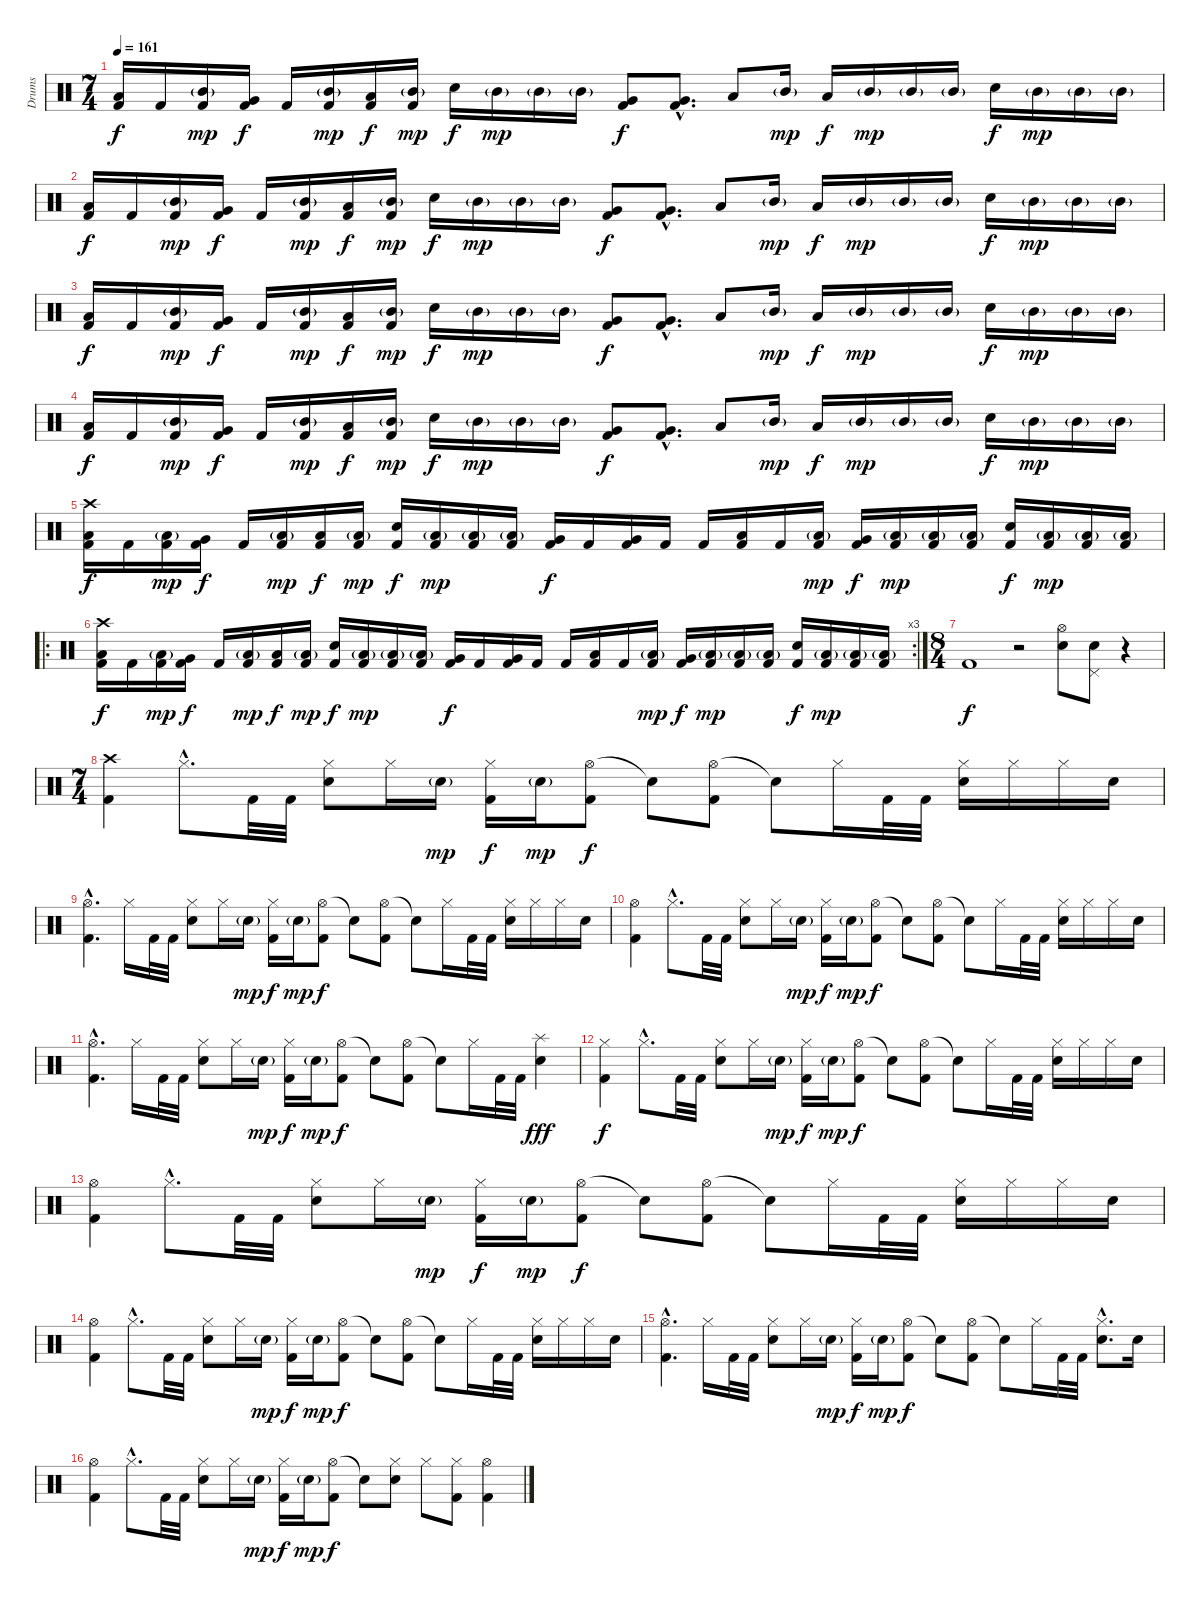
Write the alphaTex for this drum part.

\track ("Drums" "Drums") {instrument percussion}
\staff {score}
\articulation defaults
\ts (7 4)
\tempo 161
\clef neutral
\ks c
("Low Floor Tom (hit)" "Kick (hit) 2").16{dy f} "Kick (hit) 2".16 ("Mid Tom (hit)"{g} "Kick (hit) 2").16{dy mp} ("Very Low Tom (hit)" "Kick (hit) 2").16{dy f} "Kick (hit) 2".16 ("Mid Tom (hit)"{g} "Kick (hit) 2").16{dy mp} ("Low Floor Tom (hit)" "Kick (hit) 2").16{dy f} ("Mid Tom (hit)"{g} "Kick (hit) 2").16{dy mp} "Snare (hit) 2".16{dy f} "Mid Tom (hit)"{g}.16{dy mp} "Mid Tom (hit)"{g}.16 "Mid Tom (hit)"{g}.16 ("Very Low Tom (hit)" "Kick (hit) 2").8{dy f} ("Very Low Tom (hit)"{hac} "Kick (hit) 2"{hac}).8{d} "Low Floor Tom (hit)".8 "Mid Tom (hit)"{g}.16{dy mp} "Low Tom (hit)".16{dy f} "Mid Tom (hit)"{g}.16{dy mp} "Mid Tom (hit)"{g}.16 "Mid Tom (hit)"{g}.16 "Snare (hit) 2".16{dy f} "Mid Tom (hit)"{g}.16{dy mp} "Mid Tom (hit)"{g}.16 "Mid Tom (hit)"{g}.16 |
("Low Floor Tom (hit)" "Kick (hit) 2").16{dy f} "Kick (hit) 2".16 ("Mid Tom (hit)"{g} "Kick (hit) 2").16{dy mp} ("Very Low Tom (hit)" "Kick (hit) 2").16{dy f} "Kick (hit) 2".16 ("Mid Tom (hit)"{g} "Kick (hit) 2").16{dy mp} ("Low Floor Tom (hit)" "Kick (hit) 2").16{dy f} ("Mid Tom (hit)"{g} "Kick (hit) 2").16{dy mp} "Snare (hit) 2".16{dy f} "Mid Tom (hit)"{g}.16{dy mp} "Mid Tom (hit)"{g}.16 "Mid Tom (hit)"{g}.16 ("Very Low Tom (hit)" "Kick (hit) 2").8{dy f} ("Very Low Tom (hit)"{hac} "Kick (hit) 2"{hac}).8{d} "Low Floor Tom (hit)".8 "Mid Tom (hit)"{g}.16{dy mp} "Low Tom (hit)".16{dy f} "Mid Tom (hit)"{g}.16{dy mp} "Mid Tom (hit)"{g}.16 "Mid Tom (hit)"{g}.16 "Snare (hit) 2".16{dy f} "Mid Tom (hit)"{g}.16{dy mp} "Mid Tom (hit)"{g}.16 "Mid Tom (hit)"{g}.16 |
("Low Floor Tom (hit)" "Kick (hit) 2").16{dy f} "Kick (hit) 2".16 ("Mid Tom (hit)"{g} "Kick (hit) 2").16{dy mp} ("Very Low Tom (hit)" "Kick (hit) 2").16{dy f} "Kick (hit) 2".16 ("Mid Tom (hit)"{g} "Kick (hit) 2").16{dy mp} ("Low Floor Tom (hit)" "Kick (hit) 2").16{dy f} ("Mid Tom (hit)"{g} "Kick (hit) 2").16{dy mp} "Snare (hit) 2".16{dy f} "Mid Tom (hit)"{g}.16{dy mp} "Mid Tom (hit)"{g}.16 "Mid Tom (hit)"{g}.16 ("Very Low Tom (hit)" "Kick (hit) 2").8{dy f} ("Very Low Tom (hit)"{hac} "Kick (hit) 2"{hac}).8{d} "Low Floor Tom (hit)".8 "Mid Tom (hit)"{g}.16{dy mp} "Low Tom (hit)".16{dy f} "Mid Tom (hit)"{g}.16{dy mp} "Mid Tom (hit)"{g}.16 "Mid Tom (hit)"{g}.16 "Snare (hit) 2".16{dy f} "Mid Tom (hit)"{g}.16{dy mp} "Mid Tom (hit)"{g}.16 "Mid Tom (hit)"{g}.16 |
("Low Floor Tom (hit)" "Kick (hit) 2").16{dy f} "Kick (hit) 2".16 ("Mid Tom (hit)"{g} "Kick (hit) 2").16{dy mp} ("Very Low Tom (hit)" "Kick (hit) 2").16{dy f} "Kick (hit) 2".16 ("Mid Tom (hit)"{g} "Kick (hit) 2").16{dy mp} ("Low Floor Tom (hit)" "Kick (hit) 2").16{dy f} ("Mid Tom (hit)"{g} "Kick (hit) 2").16{dy mp} "Snare (hit) 2".16{dy f} "Mid Tom (hit)"{g}.16{dy mp} "Mid Tom (hit)"{g}.16 "Mid Tom (hit)"{g}.16 ("Very Low Tom (hit)" "Kick (hit) 2").8{dy f} ("Very Low Tom (hit)"{hac} "Kick (hit) 2"{hac}).8{d} "Low Floor Tom (hit)".8 "Mid Tom (hit)"{g}.16{dy mp} "Low Tom (hit)".16{dy f} "Mid Tom (hit)"{g}.16{dy mp} "Mid Tom (hit)"{g}.16 "Mid Tom (hit)"{g}.16 "Snare (hit) 2".16{dy f} "Mid Tom (hit)"{g}.16{dy mp} "Mid Tom (hit)"{g}.16 "Mid Tom (hit)"{g}.16 |
("Crash high (hit)" "Low Floor Tom (hit)" "Kick (hit) 2").16{dy f} "Kick (hit) 2".16 ("Low Tom (hit)"{g} "Kick (hit) 2").16{dy mp} ("Very Low Tom (hit)" "Kick (hit) 2").16{dy f} "Kick (hit) 2".16 ("Low Tom (hit)"{g} "Kick (hit) 2").16{dy mp} ("Low Floor Tom (hit)" "Kick (hit) 2").16{dy f} ("Low Tom (hit)"{g} "Kick (hit) 2").16{dy mp} ("Snare (hit) 2" "Kick (hit) 2").16{dy f} ("Low Tom (hit)"{g} "Kick (hit) 2").16{dy mp} ("Low Tom (hit)"{g} "Kick (hit) 2").16 ("Low Tom (hit)"{g} "Kick (hit) 2").16 ("Very Low Tom (hit)" "Kick (hit) 2").16{dy f} "Kick (hit) 2".16 ("Very Low Tom (hit)" "Kick (hit) 2").16 "Kick (hit) 2".16 "Kick (hit) 2".16 ("Low Floor Tom (hit)" "Kick (hit) 2").16 "Kick (hit) 2".16 ("Low Tom (hit)"{g} "Kick (hit) 2").16{dy mp} ("Very Low Tom (hit)" "Kick (hit) 2").16{dy f} ("Low Tom (hit)"{g} "Kick (hit) 2").16{dy mp} ("Low Tom (hit)"{g} "Kick (hit) 2").16 ("Low Tom (hit)"{g} "Kick (hit) 2").16 ("Snare (hit) 2" "Kick (hit) 2").16{dy f} ("Low Tom (hit)"{g} "Kick (hit) 2").16{dy mp} ("Low Tom (hit)"{g} "Kick (hit) 2").16 ("Low Tom (hit)"{g} "Kick (hit) 2").16 |
\ro
\rc 3
("Crash high (hit)" "Low Floor Tom (hit)" "Kick (hit) 2").16{dy f} "Kick (hit) 2".16 ("Low Tom (hit)"{g} "Kick (hit) 2").16{dy mp} ("Very Low Tom (hit)" "Kick (hit) 2").16{dy f} "Kick (hit) 2".16 ("Low Tom (hit)"{g} "Kick (hit) 2").16{dy mp} ("Low Floor Tom (hit)" "Kick (hit) 2").16{dy f} ("Low Tom (hit)"{g} "Kick (hit) 2").16{dy mp} ("Snare (hit) 2" "Kick (hit) 2").16{dy f} ("Low Tom (hit)"{g} "Kick (hit) 2").16{dy mp} ("Low Tom (hit)"{g} "Kick (hit) 2").16 ("Low Tom (hit)"{g} "Kick (hit) 2").16 ("Very Low Tom (hit)" "Kick (hit) 2").16{dy f} "Kick (hit) 2".16 ("Very Low Tom (hit)" "Kick (hit) 2").16 "Kick (hit) 2".16 "Kick (hit) 2".16 ("Low Floor Tom (hit)" "Kick (hit) 2").16 "Kick (hit) 2".16 ("Low Tom (hit)"{g} "Kick (hit) 2").16{dy mp} ("Very Low Tom (hit)" "Kick (hit) 2").16{dy f} ("Low Tom (hit)"{g} "Kick (hit) 2").16{dy mp} ("Low Tom (hit)"{g} "Kick (hit) 2").16 ("Low Tom (hit)"{g} "Kick (hit) 2").16 ("Snare (hit) 2" "Kick (hit) 2").16{dy f} ("Low Tom (hit)"{g} "Kick (hit) 2").16{dy mp} ("Low Tom (hit)"{g} "Kick (hit) 2").16 ("Low Tom (hit)"{g} "Kick (hit) 2").16 |
\ts (8 4)
"Kick (hit) 2".1{dy f} r.2 ("Hi-Hat (open)" "Snare (hit) 2").8 ("Pedal Hi-Hat (hit)" "Snare (hit) 2").8 r.4 |
\ts (7 4)
("Crash high (hit)" "Kick (hit) 2").4 "Hi-Hat (closed)"{hac}.8{d} "Kick (hit) 2".32 "Kick (hit) 2".32 ("Hi-Hat (closed)" "Snare (hit) 2").8 "Hi-Hat (closed)".16 "Snare (hit) 2"{g}.16{dy mp} ("Hi-Hat (closed)" "Kick (hit) 2").16{dy f} "Snare (hit) 2"{g}.16{dy mp} ("Hi-Hat (open)" "Kick (hit) 2").8{dy f} "Snare (hit)"{t}.8 ("Hi-Hat (open)" "Kick (hit) 2").8 "Snare (hit)"{t}.8 "Hi-Hat (closed)".16 "Kick (hit) 2".32 "Kick (hit) 2".32 ("Hi-Hat (closed)" "Snare (hit) 2").16 "Hi-Hat (closed)".16 "Hi-Hat (closed)".16 "Snare (hit) 2".16 |
("Hi-Hat (open)"{hac} "Kick (hit) 2"{hac}).4{d} "Hi-Hat (closed)".16 "Kick (hit) 2".32 "Kick (hit) 2".32 ("Hi-Hat (closed)" "Snare (hit) 2").8 "Hi-Hat (closed)".16 "Snare (hit) 2"{g}.16{dy mp} ("Hi-Hat (closed)" "Kick (hit) 2").16{dy f} "Snare (hit) 2"{g}.16{dy mp} ("Hi-Hat (open)" "Kick (hit) 2").8{dy f} "Snare (hit)"{t}.8 ("Hi-Hat (open)" "Kick (hit) 2").8 "Snare (hit)"{t}.8 "Hi-Hat (closed)".16 "Kick (hit) 2".32 "Kick (hit) 2".32 ("Hi-Hat (closed)" "Snare (hit) 2").16 "Hi-Hat (closed)".16 "Hi-Hat (closed)".16 "Snare (hit) 2".16 |
("Hi-Hat (open)" "Kick (hit) 2").4 "Hi-Hat (closed)"{hac}.8{d} "Kick (hit) 2".32 "Kick (hit) 2".32 ("Hi-Hat (closed)" "Snare (hit) 2").8 "Hi-Hat (closed)".16 "Snare (hit) 2"{g}.16{dy mp} ("Hi-Hat (closed)" "Kick (hit) 2").16{dy f} "Snare (hit) 2"{g}.16{dy mp} ("Hi-Hat (open)" "Kick (hit) 2").8{dy f} "Snare (hit)"{t}.8 ("Hi-Hat (open)" "Kick (hit) 2").8 "Snare (hit)"{t}.8 "Hi-Hat (closed)".16 "Kick (hit) 2".32 "Kick (hit) 2".32 ("Hi-Hat (closed)" "Snare (hit) 2").16 "Hi-Hat (closed)".16 "Hi-Hat (closed)".16 "Snare (hit) 2".16 |
("Hi-Hat (open)"{hac} "Kick (hit) 2"{hac}).4{d} "Hi-Hat (closed)".16 "Kick (hit) 2".32 "Kick (hit) 2".32 ("Hi-Hat (closed)" "Snare (hit) 2").8 "Hi-Hat (closed)".16 "Snare (hit) 2"{g}.16{dy mp} ("Hi-Hat (closed)" "Kick (hit) 2").16{dy f} "Snare (hit) 2"{g}.16{dy mp} ("Hi-Hat (open)" "Kick (hit) 2").8{dy f} "Snare (hit)"{t}.8 ("Hi-Hat (open)" "Kick (hit) 2").8 "Snare (hit)"{t}.8 "Hi-Hat (closed)".16 "Kick (hit) 2".32 "Kick (hit) 2".32 ("Splash (hit)" "Snare (hit) 2").4{dy fff} |
("Hi-Hat (closed)" "Kick (hit) 2").4{dy f} "Hi-Hat (closed)"{hac}.8{d} "Kick (hit) 2".32 "Kick (hit) 2".32 ("Hi-Hat (closed)" "Snare (hit) 2").8 "Hi-Hat (closed)".16 "Snare (hit) 2"{g}.16{dy mp} ("Hi-Hat (closed)" "Kick (hit) 2").16{dy f} "Snare (hit) 2"{g}.16{dy mp} ("Hi-Hat (open)" "Kick (hit) 2").8{dy f} "Snare (hit)"{t}.8 ("Hi-Hat (open)" "Kick (hit) 2").8 "Snare (hit)"{t}.8 "Hi-Hat (closed)".16 "Kick (hit) 2".32 "Kick (hit) 2".32 ("Hi-Hat (closed)" "Snare (hit) 2").16 "Hi-Hat (closed)".16 "Hi-Hat (closed)".16 "Snare (hit) 2".16 |
("Hi-Hat (open)" "Kick (hit) 2").4 "Hi-Hat (closed)"{hac}.8{d} "Kick (hit) 2".32 "Kick (hit) 2".32 ("Hi-Hat (closed)" "Snare (hit) 2").8 "Hi-Hat (closed)".16 "Snare (hit) 2"{g}.16{dy mp} ("Hi-Hat (closed)" "Kick (hit) 2").16{dy f} "Snare (hit) 2"{g}.16{dy mp} ("Hi-Hat (open)" "Kick (hit) 2").8{dy f} "Snare (hit)"{t}.8 ("Hi-Hat (open)" "Kick (hit) 2").8 "Snare (hit)"{t}.8 "Hi-Hat (closed)".16 "Kick (hit) 2".32 "Kick (hit) 2".32 ("Hi-Hat (closed)" "Snare (hit) 2").16 "Hi-Hat (closed)".16 "Hi-Hat (closed)".16 "Snare (hit) 2".16 |
("Hi-Hat (open)" "Kick (hit) 2").4 "Hi-Hat (closed)"{hac}.8{d} "Kick (hit) 2".32 "Kick (hit) 2".32 ("Hi-Hat (closed)" "Snare (hit) 2").8 "Hi-Hat (closed)".16 "Snare (hit) 2"{g}.16{dy mp} ("Hi-Hat (closed)" "Kick (hit) 2").16{dy f} "Snare (hit) 2"{g}.16{dy mp} ("Hi-Hat (open)" "Kick (hit) 2").8{dy f} "Snare (hit)"{t}.8 ("Hi-Hat (open)" "Kick (hit) 2").8 "Snare (hit)"{t}.8 "Hi-Hat (closed)".16 "Kick (hit) 2".32 "Kick (hit) 2".32 ("Hi-Hat (closed)" "Snare (hit) 2").16 "Hi-Hat (closed)".16 "Hi-Hat (closed)".16 "Snare (hit) 2".16 |
("Hi-Hat (open)"{hac} "Kick (hit) 2"{hac}).4{d} "Hi-Hat (closed)".16 "Kick (hit) 2".32 "Kick (hit) 2".32 ("Hi-Hat (closed)" "Snare (hit) 2").8 "Hi-Hat (closed)".16 "Snare (hit) 2"{g}.16{dy mp} ("Hi-Hat (closed)" "Kick (hit) 2").16{dy f} "Snare (hit) 2"{g}.16{dy mp} ("Hi-Hat (open)" "Kick (hit) 2").8{dy f} "Snare (hit)"{t}.8 ("Hi-Hat (open)" "Kick (hit) 2").8 "Snare (hit)"{t}.8 "Hi-Hat (closed)".16 "Kick (hit) 2".32 "Kick (hit) 2".32 ("Hi-Hat (closed)"{hac} "Snare (hit) 2"{hac}).8{d} "Snare (hit) 2".16 |
("Hi-Hat (open)" "Kick (hit) 2").4 "Hi-Hat (closed)"{hac}.8{d} "Kick (hit) 2".32 "Kick (hit) 2".32 ("Hi-Hat (closed)" "Snare (hit) 2").8 "Hi-Hat (closed)".16 "Snare (hit) 2"{g}.16{dy mp} ("Hi-Hat (closed)" "Kick (hit) 2").16{dy f} "Snare (hit) 2"{g}.16{dy mp} ("Hi-Hat (open)" "Kick (hit) 2").8{dy f} "Snare (hit)"{t}.8 ("Hi-Hat (closed)" "Snare (hit) 2").8 "Hi-Hat (closed)".8 ("Hi-Hat (closed)" "Kick (hit) 2").8 ("Hi-Hat (open)" "Kick (hit) 2").4
